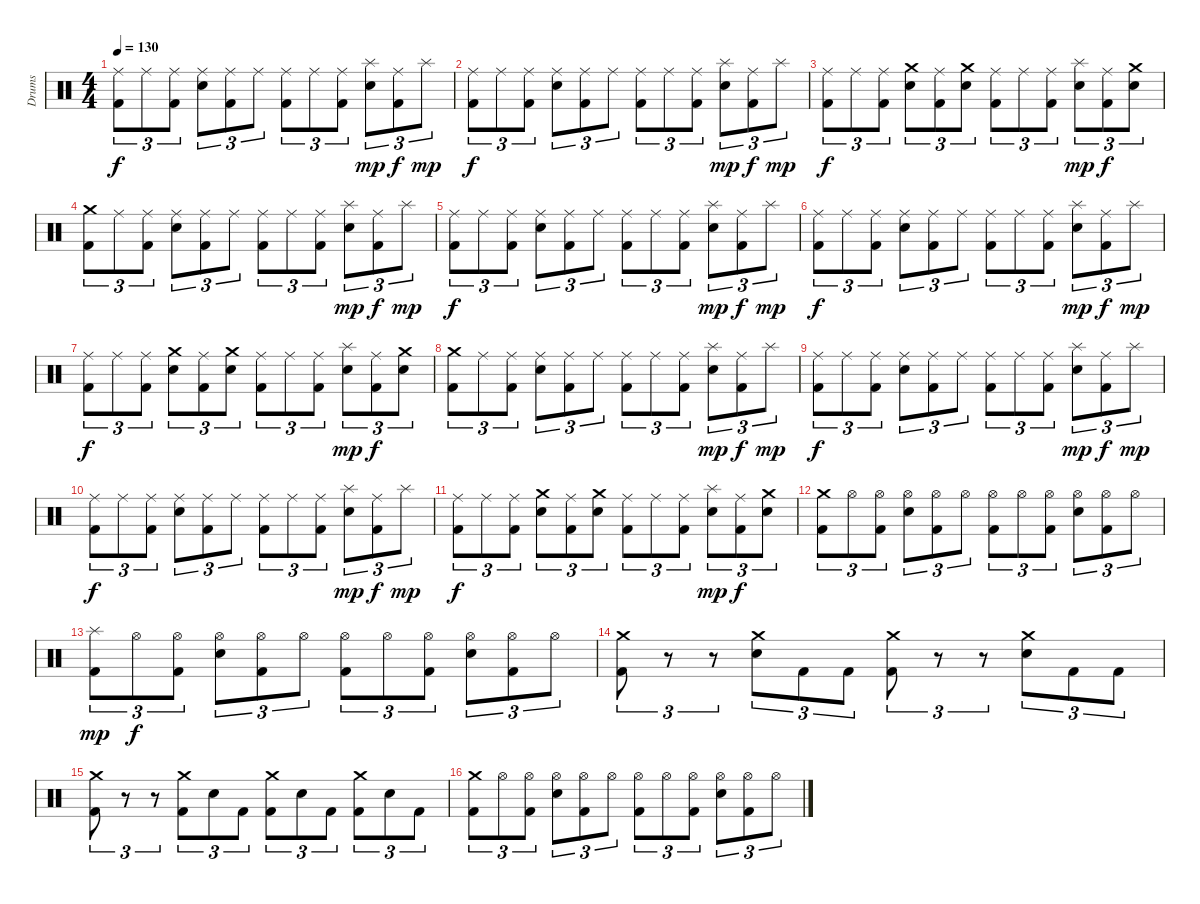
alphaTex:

\track ("Drums" "Drums") {instrument percussion}
\staff {score}
\articulation defaults
\ts (4 4)
\tempo 130
\clef neutral
\ks c
("Ride (middle)" "Kick (hit) 2").8{tu (3 2) dy f} "Ride (middle)".8{tu (3 2)} ("Ride (middle)" "Kick (hit) 2").8{tu (3 2)} ("Ride (middle)" "Electric Snare (hit)").8{tu (3 2)} ("Ride (middle)" "Kick (hit) 2").8{tu (3 2)} "Ride (middle)".8{tu (3 2)} ("Ride (middle)" "Kick (hit) 2").8{tu (3 2)} "Ride (middle)".8{tu (3 2)} ("Ride (middle)" "Kick (hit) 2").8{tu (3 2)} ("Splash (hit)" "Electric Snare (hit)").8{tu (3 2) dy mp} ("Ride (middle)" "Kick (hit) 2").8{tu (3 2) dy f} "Splash (hit)".8{tu (3 2) dy mp} |
("Ride (middle)" "Kick (hit) 2").8{tu (3 2) dy f} "Ride (middle)".8{tu (3 2)} ("Ride (middle)" "Kick (hit) 2").8{tu (3 2)} ("Ride (middle)" "Electric Snare (hit)").8{tu (3 2)} ("Ride (middle)" "Kick (hit) 2").8{tu (3 2)} "Ride (middle)".8{tu (3 2)} ("Ride (middle)" "Kick (hit) 2").8{tu (3 2)} "Ride (middle)".8{tu (3 2)} ("Ride (middle)" "Kick (hit) 2").8{tu (3 2)} ("Splash (hit)" "Electric Snare (hit)").8{tu (3 2) dy mp} ("Ride (middle)" "Kick (hit) 2").8{tu (3 2) dy f} "Splash (hit)".8{tu (3 2) dy mp} |
("Ride (middle)" "Kick (hit) 2").8{tu (3 2) dy f} "Ride (middle)".8{tu (3 2)} ("Ride (middle)" "Kick (hit) 2").8{tu (3 2)} ("Crash medium (hit)" "Electric Snare (hit)").8{tu (3 2)} ("Ride (middle)" "Kick (hit) 2").8{tu (3 2)} ("Crash medium (hit)" "Electric Snare (hit)").8{tu (3 2)} ("Ride (middle)" "Kick (hit) 2").8{tu (3 2)} "Ride (middle)".8{tu (3 2)} ("Ride (middle)" "Kick (hit) 2").8{tu (3 2)} ("Splash (hit)" "Electric Snare (hit)").8{tu (3 2) dy mp} ("Ride (middle)" "Kick (hit) 2").8{tu (3 2) dy f} ("Crash medium (hit)" "Electric Snare (hit)").8{tu (3 2)} |
("Crash medium (hit)" "Kick (hit) 2").8{tu (3 2)} "Ride (middle)".8{tu (3 2)} ("Ride (middle)" "Kick (hit) 2").8{tu (3 2)} ("Ride (middle)" "Electric Snare (hit)").8{tu (3 2)} ("Ride (middle)" "Kick (hit) 2").8{tu (3 2)} "Ride (middle)".8{tu (3 2)} ("Ride (middle)" "Kick (hit) 2").8{tu (3 2)} "Ride (middle)".8{tu (3 2)} ("Ride (middle)" "Kick (hit) 2").8{tu (3 2)} ("Splash (hit)" "Electric Snare (hit)").8{tu (3 2) dy mp} ("Ride (middle)" "Kick (hit) 2").8{tu (3 2) dy f} "Splash (hit)".8{tu (3 2) dy mp} |
("Ride (middle)" "Kick (hit) 2").8{tu (3 2) dy f} "Ride (middle)".8{tu (3 2)} ("Ride (middle)" "Kick (hit) 2").8{tu (3 2)} ("Ride (middle)" "Electric Snare (hit)").8{tu (3 2)} ("Ride (middle)" "Kick (hit) 2").8{tu (3 2)} "Ride (middle)".8{tu (3 2)} ("Ride (middle)" "Kick (hit) 2").8{tu (3 2)} "Ride (middle)".8{tu (3 2)} ("Ride (middle)" "Kick (hit) 2").8{tu (3 2)} ("Splash (hit)" "Electric Snare (hit)").8{tu (3 2) dy mp} ("Ride (middle)" "Kick (hit) 2").8{tu (3 2) dy f} "Splash (hit)".8{tu (3 2) dy mp} |
("Ride (middle)" "Kick (hit) 2").8{tu (3 2) dy f} "Ride (middle)".8{tu (3 2)} ("Ride (middle)" "Kick (hit) 2").8{tu (3 2)} ("Ride (middle)" "Electric Snare (hit)").8{tu (3 2)} ("Ride (middle)" "Kick (hit) 2").8{tu (3 2)} "Ride (middle)".8{tu (3 2)} ("Ride (middle)" "Kick (hit) 2").8{tu (3 2)} "Ride (middle)".8{tu (3 2)} ("Ride (middle)" "Kick (hit) 2").8{tu (3 2)} ("Splash (hit)" "Electric Snare (hit)").8{tu (3 2) dy mp} ("Ride (middle)" "Kick (hit) 2").8{tu (3 2) dy f} "Splash (hit)".8{tu (3 2) dy mp} |
("Ride (middle)" "Kick (hit) 2").8{tu (3 2) dy f} "Ride (middle)".8{tu (3 2)} ("Ride (middle)" "Kick (hit) 2").8{tu (3 2)} ("Crash medium (hit)" "Electric Snare (hit)").8{tu (3 2)} ("Ride (middle)" "Kick (hit) 2").8{tu (3 2)} ("Crash medium (hit)" "Electric Snare (hit)").8{tu (3 2)} ("Ride (middle)" "Kick (hit) 2").8{tu (3 2)} "Ride (middle)".8{tu (3 2)} ("Ride (middle)" "Kick (hit) 2").8{tu (3 2)} ("Splash (hit)" "Electric Snare (hit)").8{tu (3 2) dy mp} ("Ride (middle)" "Kick (hit) 2").8{tu (3 2) dy f} ("Crash medium (hit)" "Electric Snare (hit)").8{tu (3 2)} |
("Crash medium (hit)" "Kick (hit) 2").8{tu (3 2)} "Ride (middle)".8{tu (3 2)} ("Ride (middle)" "Kick (hit) 2").8{tu (3 2)} ("Ride (middle)" "Electric Snare (hit)").8{tu (3 2)} ("Ride (middle)" "Kick (hit) 2").8{tu (3 2)} "Ride (middle)".8{tu (3 2)} ("Ride (middle)" "Kick (hit) 2").8{tu (3 2)} "Ride (middle)".8{tu (3 2)} ("Ride (middle)" "Kick (hit) 2").8{tu (3 2)} ("Splash (hit)" "Electric Snare (hit)").8{tu (3 2) dy mp} ("Ride (middle)" "Kick (hit) 2").8{tu (3 2) dy f} "Splash (hit)".8{tu (3 2) dy mp} |
("Ride (middle)" "Kick (hit) 2").8{tu (3 2) dy f} "Ride (middle)".8{tu (3 2)} ("Ride (middle)" "Kick (hit) 2").8{tu (3 2)} ("Ride (middle)" "Electric Snare (hit)").8{tu (3 2)} ("Ride (middle)" "Kick (hit) 2").8{tu (3 2)} "Ride (middle)".8{tu (3 2)} ("Ride (middle)" "Kick (hit) 2").8{tu (3 2)} "Ride (middle)".8{tu (3 2)} ("Ride (middle)" "Kick (hit) 2").8{tu (3 2)} ("Splash (hit)" "Electric Snare (hit)").8{tu (3 2) dy mp} ("Ride (middle)" "Kick (hit) 2").8{tu (3 2) dy f} "Splash (hit)".8{tu (3 2) dy mp} |
("Ride (middle)" "Kick (hit) 2").8{tu (3 2) dy f} "Ride (middle)".8{tu (3 2)} ("Ride (middle)" "Kick (hit) 2").8{tu (3 2)} ("Ride (middle)" "Electric Snare (hit)").8{tu (3 2)} ("Ride (middle)" "Kick (hit) 2").8{tu (3 2)} "Ride (middle)".8{tu (3 2)} ("Ride (middle)" "Kick (hit) 2").8{tu (3 2)} "Ride (middle)".8{tu (3 2)} ("Ride (middle)" "Kick (hit) 2").8{tu (3 2)} ("Splash (hit)" "Electric Snare (hit)").8{tu (3 2) dy mp} ("Ride (middle)" "Kick (hit) 2").8{tu (3 2) dy f} "Splash (hit)".8{tu (3 2) dy mp} |
("Ride (middle)" "Kick (hit) 2").8{tu (3 2) dy f} "Ride (middle)".8{tu (3 2)} ("Ride (middle)" "Kick (hit) 2").8{tu (3 2)} ("Crash medium (hit)" "Electric Snare (hit)").8{tu (3 2)} ("Ride (middle)" "Kick (hit) 2").8{tu (3 2)} ("Crash medium (hit)" "Electric Snare (hit)").8{tu (3 2)} ("Ride (middle)" "Kick (hit) 2").8{tu (3 2)} "Ride (middle)".8{tu (3 2)} ("Ride (middle)" "Kick (hit) 2").8{tu (3 2)} ("Splash (hit)" "Electric Snare (hit)").8{tu (3 2) dy mp} ("Ride (middle)" "Kick (hit) 2").8{tu (3 2) dy f} ("Crash medium (hit)" "Electric Snare (hit)").8{tu (3 2)} |
("Kick (hit) 2" "Crash medium (hit)").8{tu (3 2)} "Hi-Hat (open)".8{tu (3 2)} ("Kick (hit) 2" "Hi-Hat (open)").8{tu (3 2)} ("Electric Snare (hit)" "Hi-Hat (open)").8{tu (3 2)} ("Kick (hit) 2" "Hi-Hat (open)").8{tu (3 2)} "Hi-Hat (open)".8{tu (3 2)} ("Kick (hit) 2" "Hi-Hat (open)").8{tu (3 2)} "Hi-Hat (open)".8{tu (3 2)} ("Kick (hit) 2" "Hi-Hat (open)").8{tu (3 2)} ("Electric Snare (hit)" "Hi-Hat (open)").8{tu (3 2)} ("Kick (hit) 2" "Hi-Hat (open)").8{tu (3 2)} "Hi-Hat (open)".8{tu (3 2)} |
("Kick (hit) 2" "Splash (hit)").8{tu (3 2) dy mp} "Hi-Hat (open)".8{tu (3 2) dy f} ("Kick (hit) 2" "Hi-Hat (open)").8{tu (3 2)} ("Electric Snare (hit)" "Hi-Hat (open)").8{tu (3 2)} ("Kick (hit) 2" "Hi-Hat (open)").8{tu (3 2)} "Hi-Hat (open)".8{tu (3 2)} ("Kick (hit) 2" "Hi-Hat (open)").8{tu (3 2)} "Hi-Hat (open)".8{tu (3 2)} ("Kick (hit) 2" "Hi-Hat (open)").8{tu (3 2)} ("Electric Snare (hit)" "Hi-Hat (open)").8{tu (3 2)} ("Kick (hit) 2" "Hi-Hat (open)").8{tu (3 2)} "Hi-Hat (open)".8{tu (3 2)} |
("Kick (hit) 2" "Crash medium (hit)").8{tu (3 2)} r.8{tu (3 2)} r.8{tu (3 2)} ("Electric Snare (hit)" "Crash medium (hit)").8{tu (3 2)} "Kick (hit) 2".8{tu (3 2)} "Kick (hit) 2".8{tu (3 2)} ("Kick (hit) 2" "Crash medium (hit)").8{tu (3 2)} r.8{tu (3 2)} r.8{tu (3 2)} ("Electric Snare (hit)" "Crash medium (hit)").8{tu (3 2)} "Kick (hit) 2".8{tu (3 2)} "Kick (hit) 2".8{tu (3 2)} |
("Kick (hit) 2" "Crash medium (hit)").8{tu (3 2)} r.8{tu (3 2)} r.8{tu (3 2)} ("Kick (hit) 2" "Crash medium (hit)").8{tu (3 2)} "Electric Snare (hit)".8{tu (3 2)} "Kick (hit) 2".8{tu (3 2)} ("Kick (hit) 2" "Crash medium (hit)").8{tu (3 2)} "Electric Snare (hit)".8{tu (3 2)} "Kick (hit) 2".8{tu (3 2)} ("Kick (hit) 2" "Crash medium (hit)").8{tu (3 2)} "Electric Snare (hit)".8{tu (3 2)} "Kick (hit) 2".8{tu (3 2)} |
("Kick (hit) 2" "Crash medium (hit)").8{tu (3 2)} "Hi-Hat (open)".8{tu (3 2)} ("Kick (hit) 2" "Hi-Hat (open)").8{tu (3 2)} ("Electric Snare (hit)" "Hi-Hat (open)").8{tu (3 2)} ("Kick (hit) 2" "Hi-Hat (open)").8{tu (3 2)} "Hi-Hat (open)".8{tu (3 2)} ("Kick (hit) 2" "Hi-Hat (open)").8{tu (3 2)} "Hi-Hat (open)".8{tu (3 2)} ("Kick (hit) 2" "Hi-Hat (open)").8{tu (3 2)} ("Electric Snare (hit)" "Hi-Hat (open)").8{tu (3 2)} ("Kick (hit) 2" "Hi-Hat (open)").8{tu (3 2)} "Hi-Hat (open)".8{tu (3 2)}
